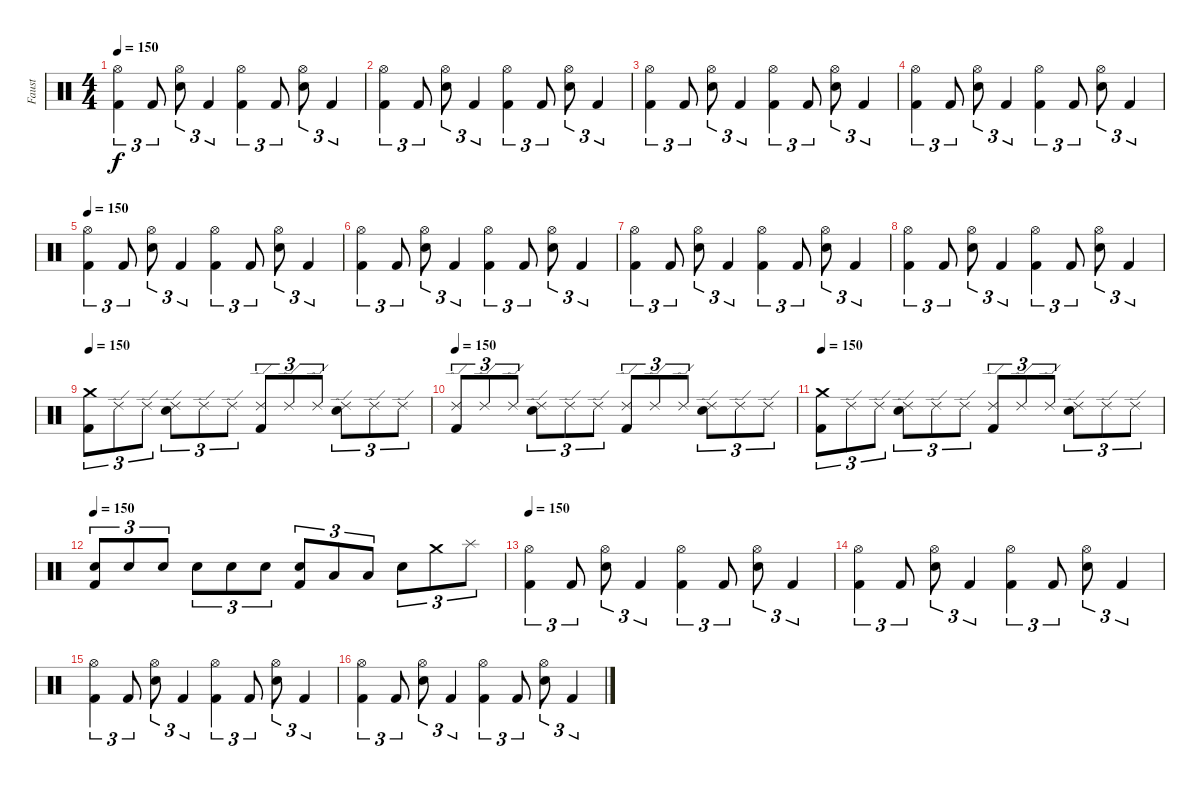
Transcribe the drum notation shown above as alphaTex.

\track ("Faust" "Faust") {instrument percussion}
\staff {score}
\articulation defaults
\ts (4 4)
\tempo 150
\clef neutral
\ks c
("Hi-Hat (open)" "Kick (hit) 2").4{tu (3 2) dy f} "Kick (hit) 2".8{tu (3 2)} ("Hi-Hat (open)" "Electric Snare (hit)").8{tu (3 2)} "Kick (hit) 2".4{tu (3 2)} ("Hi-Hat (open)" "Kick (hit) 2").4{tu (3 2)} "Kick (hit) 2".8{tu (3 2)} ("Hi-Hat (open)" "Electric Snare (hit)").8{tu (3 2)} "Kick (hit) 2".4{tu (3 2)} |
("Hi-Hat (open)" "Kick (hit) 2").4{tu (3 2)} "Kick (hit) 2".8{tu (3 2)} ("Hi-Hat (open)" "Electric Snare (hit)").8{tu (3 2)} "Kick (hit) 2".4{tu (3 2)} ("Hi-Hat (open)" "Kick (hit) 2").4{tu (3 2)} "Kick (hit) 2".8{tu (3 2)} ("Hi-Hat (open)" "Electric Snare (hit)").8{tu (3 2)} "Kick (hit) 2".4{tu (3 2)} |
("Hi-Hat (open)" "Kick (hit) 2").4{tu (3 2)} "Kick (hit) 2".8{tu (3 2)} ("Hi-Hat (open)" "Electric Snare (hit)").8{tu (3 2)} "Kick (hit) 2".4{tu (3 2)} ("Hi-Hat (open)" "Kick (hit) 2").4{tu (3 2)} "Kick (hit) 2".8{tu (3 2)} ("Hi-Hat (open)" "Electric Snare (hit)").8{tu (3 2)} "Kick (hit) 2".4{tu (3 2)} |
("Hi-Hat (open)" "Kick (hit) 2").4{tu (3 2)} "Kick (hit) 2".8{tu (3 2)} ("Hi-Hat (open)" "Electric Snare (hit)").8{tu (3 2)} "Kick (hit) 2".4{tu (3 2)} ("Hi-Hat (open)" "Kick (hit) 2").4{tu (3 2)} "Kick (hit) 2".8{tu (3 2)} ("Hi-Hat (open)" "Electric Snare (hit)").8{tu (3 2)} "Kick (hit) 2".4{tu (3 2)} |
\tempo 150
("Hi-Hat (open)" "Kick (hit) 2").4{tu (3 2)} "Kick (hit) 2".8{tu (3 2)} ("Hi-Hat (open)" "Electric Snare (hit)").8{tu (3 2)} "Kick (hit) 2".4{tu (3 2)} ("Hi-Hat (open)" "Kick (hit) 2").4{tu (3 2)} "Kick (hit) 2".8{tu (3 2)} ("Hi-Hat (open)" "Electric Snare (hit)").8{tu (3 2)} "Kick (hit) 2".4{tu (3 2)} |
("Hi-Hat (open)" "Kick (hit) 2").4{tu (3 2)} "Kick (hit) 2".8{tu (3 2)} ("Hi-Hat (open)" "Electric Snare (hit)").8{tu (3 2)} "Kick (hit) 2".4{tu (3 2)} ("Hi-Hat (open)" "Kick (hit) 2").4{tu (3 2)} "Kick (hit) 2".8{tu (3 2)} ("Hi-Hat (open)" "Electric Snare (hit)").8{tu (3 2)} "Kick (hit) 2".4{tu (3 2)} |
("Hi-Hat (open)" "Kick (hit) 2").4{tu (3 2)} "Kick (hit) 2".8{tu (3 2)} ("Hi-Hat (open)" "Electric Snare (hit)").8{tu (3 2)} "Kick (hit) 2".4{tu (3 2)} ("Hi-Hat (open)" "Kick (hit) 2").4{tu (3 2)} "Kick (hit) 2".8{tu (3 2)} ("Hi-Hat (open)" "Electric Snare (hit)").8{tu (3 2)} "Kick (hit) 2".4{tu (3 2)} |
("Hi-Hat (open)" "Kick (hit) 2").4{tu (3 2)} "Kick (hit) 2".8{tu (3 2)} ("Hi-Hat (open)" "Electric Snare (hit)").8{tu (3 2)} "Kick (hit) 2".4{tu (3 2)} ("Hi-Hat (open)" "Kick (hit) 2").4{tu (3 2)} "Kick (hit) 2".8{tu (3 2)} ("Hi-Hat (open)" "Electric Snare (hit)").8{tu (3 2)} "Kick (hit) 2".4{tu (3 2)} |
\tempo 150
("Crash medium (hit)" "Kick (hit) 2").8{tu (3 2)} "Ride (edge) 2".8{tu (3 2)} "Ride (edge) 2".8{tu (3 2)} ("Ride (edge) 2" "Electric Snare (hit)").8{tu (3 2)} "Ride (edge) 2".8{tu (3 2)} "Ride (edge) 2".8{tu (3 2)} ("Ride (edge) 2" "Kick (hit) 2").8{tu (3 2)} "Ride (edge) 2".8{tu (3 2)} "Ride (edge) 2".8{tu (3 2)} ("Ride (edge) 2" "Electric Snare (hit)").8{tu (3 2)} "Ride (edge) 2".8{tu (3 2)} "Ride (edge) 2".8{tu (3 2)} |
\tempo 150
("Ride (edge) 2" "Kick (hit) 2").8{tu (3 2)} "Ride (edge) 2".8{tu (3 2)} "Ride (edge) 2".8{tu (3 2)} ("Ride (edge) 2" "Electric Snare (hit)").8{tu (3 2)} "Ride (edge) 2".8{tu (3 2)} "Ride (edge) 2".8{tu (3 2)} ("Ride (edge) 2" "Kick (hit) 2").8{tu (3 2)} "Ride (edge) 2".8{tu (3 2)} "Ride (edge) 2".8{tu (3 2)} ("Ride (edge) 2" "Electric Snare (hit)").8{tu (3 2)} "Ride (edge) 2".8{tu (3 2)} "Ride (edge) 2".8{tu (3 2)} |
\tempo 150
("Crash medium (hit)" "Kick (hit) 2").8{tu (3 2)} "Ride (edge) 2".8{tu (3 2)} "Ride (edge) 2".8{tu (3 2)} ("Ride (edge) 2" "Electric Snare (hit)").8{tu (3 2)} "Ride (edge) 2".8{tu (3 2)} "Ride (edge) 2".8{tu (3 2)} ("Ride (edge) 2" "Kick (hit) 2").8{tu (3 2)} "Ride (edge) 2".8{tu (3 2)} "Ride (edge) 2".8{tu (3 2)} ("Ride (edge) 2" "Electric Snare (hit)").8{tu (3 2)} "Ride (edge) 2".8{tu (3 2)} "Ride (edge) 2".8{tu (3 2)} |
\tempo 150
("Electric Snare (hit)" "Kick (hit) 2").8{tu (3 2)} "Electric Snare (hit)".8{tu (3 2)} "Electric Snare (hit)".8{tu (3 2)} "Electric Snare (hit)".8{tu (3 2)} "Electric Snare (hit)".8{tu (3 2)} "Electric Snare (hit)".8{tu (3 2)} ("Electric Snare (hit)" "Kick (hit) 2").8{tu (3 2)} "Low Floor Tom (hit)".8{tu (3 2)} "Low Floor Tom (hit)".8{tu (3 2)} "Electric Snare (hit)".8{tu (3 2)} "Crash medium (hit)".8{tu (3 2)} "Splash (hit)".8{tu (3 2)} |
\tempo 150
("Hi-Hat (open)" "Kick (hit) 2").4{tu (3 2)} "Kick (hit) 2".8{tu (3 2)} ("Hi-Hat (open)" "Electric Snare (hit)").8{tu (3 2)} "Kick (hit) 2".4{tu (3 2)} ("Hi-Hat (open)" "Kick (hit) 2").4{tu (3 2)} "Kick (hit) 2".8{tu (3 2)} ("Hi-Hat (open)" "Electric Snare (hit)").8{tu (3 2)} "Kick (hit) 2".4{tu (3 2)} |
("Hi-Hat (open)" "Kick (hit) 2").4{tu (3 2)} "Kick (hit) 2".8{tu (3 2)} ("Hi-Hat (open)" "Electric Snare (hit)").8{tu (3 2)} "Kick (hit) 2".4{tu (3 2)} ("Hi-Hat (open)" "Kick (hit) 2").4{tu (3 2)} "Kick (hit) 2".8{tu (3 2)} ("Hi-Hat (open)" "Electric Snare (hit)").8{tu (3 2)} "Kick (hit) 2".4{tu (3 2)} |
("Hi-Hat (open)" "Kick (hit) 2").4{tu (3 2)} "Kick (hit) 2".8{tu (3 2)} ("Hi-Hat (open)" "Electric Snare (hit)").8{tu (3 2)} "Kick (hit) 2".4{tu (3 2)} ("Hi-Hat (open)" "Kick (hit) 2").4{tu (3 2)} "Kick (hit) 2".8{tu (3 2)} ("Hi-Hat (open)" "Electric Snare (hit)").8{tu (3 2)} "Kick (hit) 2".4{tu (3 2)} |
("Hi-Hat (open)" "Kick (hit) 2").4{tu (3 2)} "Kick (hit) 2".8{tu (3 2)} ("Hi-Hat (open)" "Electric Snare (hit)").8{tu (3 2)} "Kick (hit) 2".4{tu (3 2)} ("Hi-Hat (open)" "Kick (hit) 2").4{tu (3 2)} "Kick (hit) 2".8{tu (3 2)} ("Hi-Hat (open)" "Electric Snare (hit)").8{tu (3 2)} "Kick (hit) 2".4{tu (3 2)}
